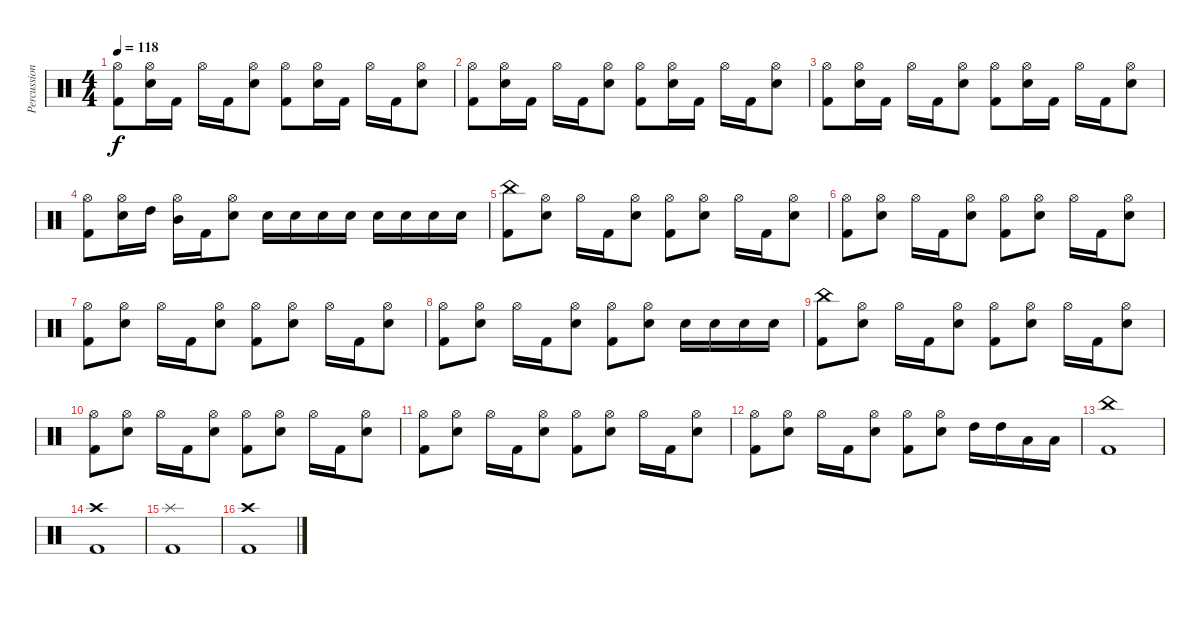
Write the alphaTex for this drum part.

\track ("Percussion" "Percussion") {instrument percussion}
\staff {score}
\articulation defaults
\ts (4 4)
\tempo 118
\clef neutral
\ks c
("Hi-Hat (open)" "Kick (hit) 2").8{dy f} ("Hi-Hat (open)" "Snare (hit) 2").16 "Kick (hit) 2".16 "Hi-Hat (open)".16 "Kick (hit) 2".16 ("Hi-Hat (open)" "Snare (hit) 2").8 ("Hi-Hat (open)" "Kick (hit) 2").8 ("Hi-Hat (open)" "Snare (hit) 2").16 "Kick (hit) 2".16 "Hi-Hat (open)".16 "Kick (hit) 2".16 ("Hi-Hat (open)" "Snare (hit) 2").8 |
("Hi-Hat (open)" "Kick (hit) 2").8 ("Hi-Hat (open)" "Snare (hit) 2").16 "Kick (hit) 2".16 "Hi-Hat (open)".16 "Kick (hit) 2".16 ("Hi-Hat (open)" "Snare (hit) 2").8 ("Hi-Hat (open)" "Kick (hit) 2").8 ("Hi-Hat (open)" "Snare (hit) 2").16 "Kick (hit) 2".16 "Hi-Hat (open)".16 "Kick (hit) 2".16 ("Hi-Hat (open)" "Snare (hit) 2").8 |
("Hi-Hat (open)" "Kick (hit) 2").8 ("Hi-Hat (open)" "Snare (hit) 2").16 "Kick (hit) 2".16 "Hi-Hat (open)".16 "Kick (hit) 2".16 ("Hi-Hat (open)" "Snare (hit) 2").8 ("Hi-Hat (open)" "Kick (hit) 2").8 ("Hi-Hat (open)" "Snare (hit) 2").16 "Kick (hit) 2".16 "Hi-Hat (open)".16 "Kick (hit) 2".16 ("Hi-Hat (open)" "Snare (hit) 2").8 |
("Hi-Hat (open)" "Kick (hit) 2").8 ("Hi-Hat (open)" "Snare (hit) 2").16 "High Tom (hit)".16 ("Hi-Hat (open)" "Mid Tom (hit)").16 "Kick (hit) 2".16 ("Hi-Hat (open)" "Snare (hit) 2").8 "Snare (hit) 2".16 "Snare (hit) 2".16 "Snare (hit) 2".16 "Snare (hit) 2".16 "Snare (hit) 2".16 "Snare (hit) 2".16 "Snare (hit) 2".16 "Snare (hit) 2".16 |
("China (hit)" "Kick (hit) 2").8 ("Hi-Hat (open)" "Snare (hit) 2").8 "Hi-Hat (open)".16 "Kick (hit) 2".16 ("Hi-Hat (open)" "Snare (hit) 2").8 ("Hi-Hat (open)" "Kick (hit) 2").8 ("Hi-Hat (open)" "Snare (hit) 2").8 "Hi-Hat (open)".16 "Kick (hit) 2".16 ("Hi-Hat (open)" "Snare (hit) 2").8 |
("Hi-Hat (open)" "Kick (hit) 2").8 ("Hi-Hat (open)" "Snare (hit) 2").8 "Hi-Hat (open)".16 "Kick (hit) 2".16 ("Hi-Hat (open)" "Snare (hit) 2").8 ("Hi-Hat (open)" "Kick (hit) 2").8 ("Hi-Hat (open)" "Snare (hit) 2").8 "Hi-Hat (open)".16 "Kick (hit) 2".16 ("Hi-Hat (open)" "Snare (hit) 2").8 |
("Hi-Hat (open)" "Kick (hit) 2").8 ("Hi-Hat (open)" "Snare (hit) 2").8 "Hi-Hat (open)".16 "Kick (hit) 2".16 ("Hi-Hat (open)" "Snare (hit) 2").8 ("Hi-Hat (open)" "Kick (hit) 2").8 ("Hi-Hat (open)" "Snare (hit) 2").8 "Hi-Hat (open)".16 "Kick (hit) 2".16 ("Hi-Hat (open)" "Snare (hit) 2").8 |
("Hi-Hat (open)" "Kick (hit) 2").8 ("Hi-Hat (open)" "Snare (hit) 2").8 "Hi-Hat (open)".16 "Kick (hit) 2".16 ("Hi-Hat (open)" "Snare (hit) 2").8 ("Hi-Hat (open)" "Kick (hit) 2").8 ("Hi-Hat (open)" "Snare (hit) 2").8 "Snare (hit) 2".16 "Snare (hit) 2".16 "Snare (hit) 2".16 "Snare (hit) 2".16 |
("China (hit)" "Kick (hit) 2").8 ("Hi-Hat (open)" "Snare (hit) 2").8 "Hi-Hat (open)".16 "Kick (hit) 2".16 ("Hi-Hat (open)" "Snare (hit) 2").8 ("Hi-Hat (open)" "Kick (hit) 2").8 ("Hi-Hat (open)" "Snare (hit) 2").8 "Hi-Hat (open)".16 "Kick (hit) 2".16 ("Hi-Hat (open)" "Snare (hit) 2").8 |
("Hi-Hat (open)" "Kick (hit) 2").8 ("Hi-Hat (open)" "Snare (hit) 2").8 "Hi-Hat (open)".16 "Kick (hit) 2".16 ("Hi-Hat (open)" "Snare (hit) 2").8 ("Hi-Hat (open)" "Kick (hit) 2").8 ("Hi-Hat (open)" "Snare (hit) 2").8 "Hi-Hat (open)".16 "Kick (hit) 2".16 ("Hi-Hat (open)" "Snare (hit) 2").8 |
("Hi-Hat (open)" "Kick (hit) 2").8 ("Hi-Hat (open)" "Snare (hit) 2").8 "Hi-Hat (open)".16 "Kick (hit) 2".16 ("Hi-Hat (open)" "Snare (hit) 2").8 ("Hi-Hat (open)" "Kick (hit) 2").8 ("Hi-Hat (open)" "Snare (hit) 2").8 "Hi-Hat (open)".16 "Kick (hit) 2".16 ("Hi-Hat (open)" "Snare (hit) 2").8 |
("Hi-Hat (open)" "Kick (hit) 2").8 ("Hi-Hat (open)" "Snare (hit) 2").8 "Hi-Hat (open)".16 "Kick (hit) 2".16 ("Hi-Hat (open)" "Snare (hit) 2").8 ("Hi-Hat (open)" "Kick (hit) 2").8 ("Hi-Hat (open)" "Snare (hit) 2").8 "High Tom (hit)".16 "High Tom (hit)".16 "Low Tom (hit)".16 "Low Tom (hit)".16 |
("China (hit)" "Kick (hit) 2").1 |
("Crash high (hit)" "Kick (hit) 2").1 |
("Splash (hit)" "Kick (hit) 2").1 |
("Crash high (hit)" "Kick (hit) 2").1
